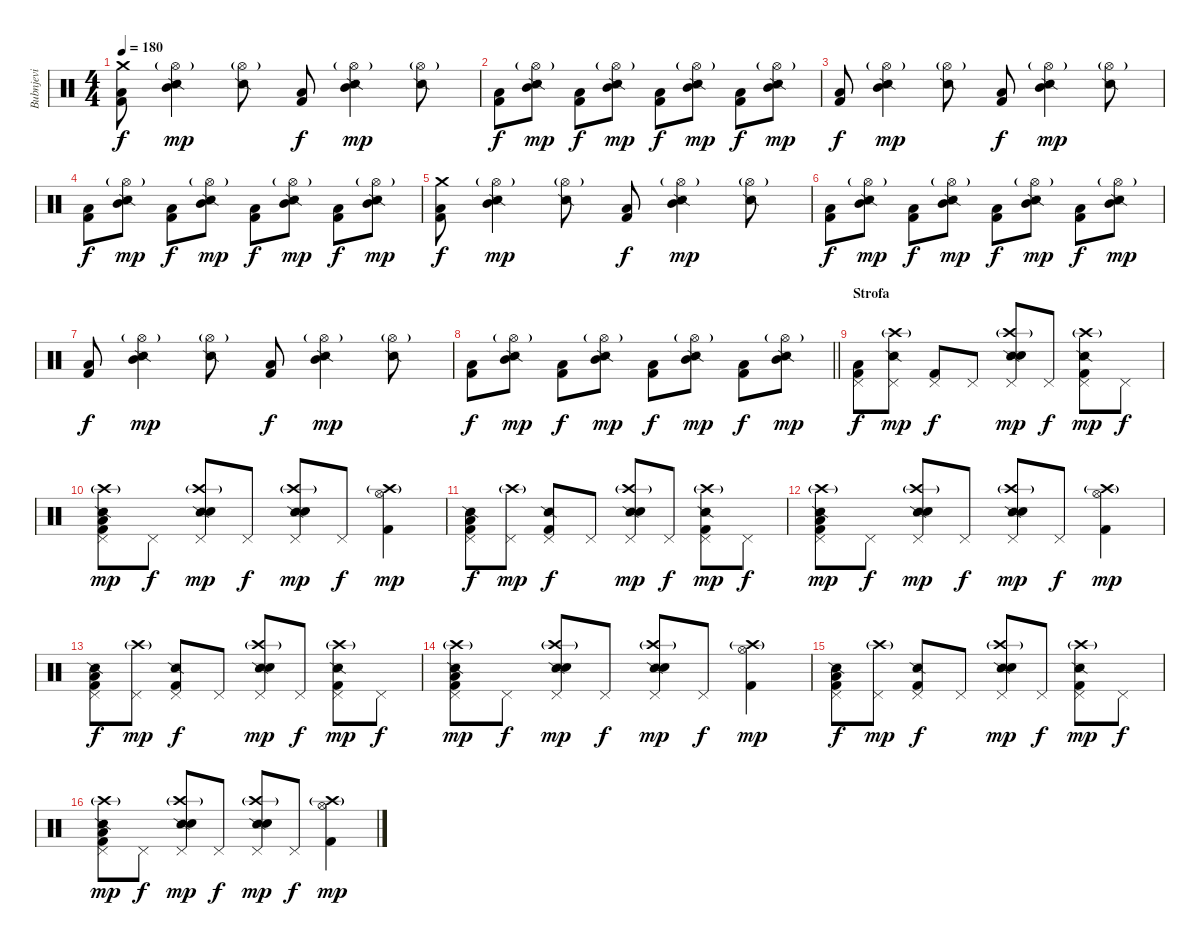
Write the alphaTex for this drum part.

\track ("Bubnjevi" "Bubnjevi") {instrument percussion}
\staff {score}
\articulation defaults
\ts (4 4)
\tempo 180
\clef neutral
\ks c
("Crash medium (hit)" "Low Tom (hit)" "Kick (hit) 2").8{dy f} ("Hi-Hat (open)"{g} "Snare (side stick) 2" "Mid Tom (hit)").4{dy mp} ("Hi-Hat (open)"{g} "Snare (side stick) 2").8 ("Low Tom (hit)" "Kick (hit) 2").8{dy f} ("Hi-Hat (open)"{g} "Snare (side stick) 2" "Mid Tom (hit)").4{dy mp} ("Hi-Hat (open)"{g} "Snare (side stick) 2").8 |
("Low Tom (hit)" "Kick (hit) 2").8{dy f} ("Hi-Hat (open)"{g} "Snare (side stick) 2" "Mid Tom (hit)").8{dy mp} ("Low Tom (hit)" "Kick (hit) 2").8{dy f} ("Hi-Hat (open)"{g} "Snare (side stick) 2" "Mid Tom (hit)").8{dy mp} ("Low Tom (hit)" "Kick (hit) 2").8{dy f} ("Hi-Hat (open)"{g} "Snare (side stick) 2" "Mid Tom (hit)").8{dy mp} ("Low Tom (hit)" "Kick (hit) 2").8{dy f} ("Hi-Hat (open)"{g} "Snare (side stick) 2" "Mid Tom (hit)").8{dy mp} |
("Low Tom (hit)" "Kick (hit) 2").8{dy f} ("Hi-Hat (open)"{g} "Snare (side stick) 2" "Mid Tom (hit)").4{dy mp} ("Hi-Hat (open)"{g} "Snare (side stick) 2").8 ("Low Tom (hit)" "Kick (hit) 2").8{dy f} ("Hi-Hat (open)"{g} "Snare (side stick) 2" "Mid Tom (hit)").4{dy mp} ("Hi-Hat (open)"{g} "Snare (side stick) 2").8 |
("Low Tom (hit)" "Kick (hit) 2").8{dy f} ("Hi-Hat (open)"{g} "Snare (side stick) 2" "Mid Tom (hit)").8{dy mp} ("Low Tom (hit)" "Kick (hit) 2").8{dy f} ("Hi-Hat (open)"{g} "Snare (side stick) 2" "Mid Tom (hit)").8{dy mp} ("Low Tom (hit)" "Kick (hit) 2").8{dy f} ("Hi-Hat (open)"{g} "Snare (side stick) 2" "Mid Tom (hit)").8{dy mp} ("Low Tom (hit)" "Kick (hit) 2").8{dy f} ("Hi-Hat (open)"{g} "Snare (side stick) 2" "Mid Tom (hit)").8{dy mp} |
("Crash medium (hit)" "Low Tom (hit)" "Kick (hit) 2").8{dy f} ("Hi-Hat (open)"{g} "Snare (side stick) 2" "Mid Tom (hit)").4{dy mp} ("Hi-Hat (open)"{g} "Snare (side stick) 2").8 ("Low Tom (hit)" "Kick (hit) 2").8{dy f} ("Hi-Hat (open)"{g} "Snare (side stick) 2" "Mid Tom (hit)").4{dy mp} ("Hi-Hat (open)"{g} "Snare (side stick) 2").8 |
("Low Tom (hit)" "Kick (hit) 2").8{dy f} ("Hi-Hat (open)"{g} "Snare (side stick) 2" "Mid Tom (hit)").8{dy mp} ("Low Tom (hit)" "Kick (hit) 2").8{dy f} ("Hi-Hat (open)"{g} "Snare (side stick) 2" "Mid Tom (hit)").8{dy mp} ("Low Tom (hit)" "Kick (hit) 2").8{dy f} ("Hi-Hat (open)"{g} "Snare (side stick) 2" "Mid Tom (hit)").8{dy mp} ("Low Tom (hit)" "Kick (hit) 2").8{dy f} ("Hi-Hat (open)"{g} "Snare (side stick) 2" "Mid Tom (hit)").8{dy mp} |
("Low Tom (hit)" "Kick (hit) 2").8{dy f} ("Hi-Hat (open)"{g} "Snare (side stick) 2" "Mid Tom (hit)").4{dy mp} ("Hi-Hat (open)"{g} "Snare (side stick) 2").8 ("Low Tom (hit)" "Kick (hit) 2").8{dy f} ("Hi-Hat (open)"{g} "Snare (side stick) 2" "Mid Tom (hit)").4{dy mp} ("Hi-Hat (open)"{g} "Snare (side stick) 2").8 |
\barLineRight lightlight
("Low Tom (hit)" "Kick (hit) 2").8{dy f} ("Hi-Hat (open)"{g} "Snare (side stick) 2" "Mid Tom (hit)").8{dy mp} ("Low Tom (hit)" "Kick (hit) 2").8{dy f} ("Hi-Hat (open)"{g} "Snare (side stick) 2" "Mid Tom (hit)").8{dy mp} ("Low Tom (hit)" "Kick (hit) 2").8{dy f} ("Hi-Hat (open)"{g} "Snare (side stick) 2" "Mid Tom (hit)").8{dy mp} ("Low Tom (hit)" "Kick (hit) 2").8{dy f} ("Hi-Hat (open)"{g} "Snare (side stick) 2" "Mid Tom (hit)").8{dy mp} |
\section ("" "Strofa")
("Pedal Hi-Hat (hit)" "Low Tom (hit)" "Kick (hit) 2").8{dy f} ("Crash high (hit)"{g} "Snare (side stick) 2" "Pedal Hi-Hat (hit)").8{dy mp} ("Pedal Hi-Hat (hit)" "Kick (hit) 2").8{dy f} "Pedal Hi-Hat (hit)".8 ("Crash high (hit)"{g} "Snare (side stick) 2" "Pedal Hi-Hat (hit)" "Electric Snare (hit)").8{dy mp} "Pedal Hi-Hat (hit)".8{dy f} ("Crash high (hit)"{g} "Snare (side stick) 2" "Pedal Hi-Hat (hit)" "Kick (hit) 2").8{dy mp} "Pedal Hi-Hat (hit)".8{dy f} |
("Crash high (hit)"{g} "Snare (side stick) 2" "Pedal Hi-Hat (hit)" "Low Tom (hit)" "Kick (hit) 2").8{dy mp} "Pedal Hi-Hat (hit)".8{dy f} ("Crash high (hit)"{g} "Snare (side stick) 2" "Pedal Hi-Hat (hit)" "Hand Clap (hit)").8{dy mp} "Pedal Hi-Hat (hit)".8{dy f} ("Crash high (hit)"{g} "Snare (side stick) 2" "Pedal Hi-Hat (hit)" "Electric Snare (hit)").8{dy mp} "Pedal Hi-Hat (hit)".8{dy f} ("Crash high (hit)"{g} "Hi-Hat (open)" "Kick (hit) 2").4{dy mp} |
("Snare (side stick) 2" "Pedal Hi-Hat (hit)" "Low Tom (hit)" "Kick (hit) 2").8{dy f} ("Crash high (hit)"{g} "Pedal Hi-Hat (hit)").8{dy mp} ("Snare (side stick) 2" "Pedal Hi-Hat (hit)" "Kick (hit) 2").8{dy f} "Pedal Hi-Hat (hit)".8 ("Crash high (hit)"{g} "Snare (side stick) 2" "Pedal Hi-Hat (hit)" "Electric Snare (hit)").8{dy mp} "Pedal Hi-Hat (hit)".8{dy f} ("Crash high (hit)"{g} "Snare (side stick) 2" "Pedal Hi-Hat (hit)" "Kick (hit) 2").8{dy mp} "Pedal Hi-Hat (hit)".8{dy f} |
("Crash high (hit)"{g} "Snare (side stick) 2" "Pedal Hi-Hat (hit)" "Low Tom (hit)" "Kick (hit) 2").8{dy mp} "Pedal Hi-Hat (hit)".8{dy f} ("Crash high (hit)"{g} "Snare (side stick) 2" "Pedal Hi-Hat (hit)" "Hand Clap (hit)").8{dy mp} "Pedal Hi-Hat (hit)".8{dy f} ("Crash high (hit)"{g} "Snare (side stick) 2" "Pedal Hi-Hat (hit)" "Electric Snare (hit)").8{dy mp} "Pedal Hi-Hat (hit)".8{dy f} ("Crash high (hit)"{g} "Hi-Hat (open)" "Kick (hit) 2").4{dy mp} |
("Snare (side stick) 2" "Pedal Hi-Hat (hit)" "Low Tom (hit)" "Kick (hit) 2").8{dy f} ("Crash high (hit)"{g} "Pedal Hi-Hat (hit)").8{dy mp} ("Snare (side stick) 2" "Pedal Hi-Hat (hit)" "Kick (hit) 2").8{dy f} "Pedal Hi-Hat (hit)".8 ("Crash high (hit)"{g} "Snare (side stick) 2" "Pedal Hi-Hat (hit)" "Electric Snare (hit)").8{dy mp} "Pedal Hi-Hat (hit)".8{dy f} ("Crash high (hit)"{g} "Snare (side stick) 2" "Pedal Hi-Hat (hit)" "Kick (hit) 2").8{dy mp} "Pedal Hi-Hat (hit)".8{dy f} |
("Crash high (hit)"{g} "Snare (side stick) 2" "Pedal Hi-Hat (hit)" "Low Tom (hit)" "Kick (hit) 2").8{dy mp} "Pedal Hi-Hat (hit)".8{dy f} ("Crash high (hit)"{g} "Snare (side stick) 2" "Pedal Hi-Hat (hit)" "Hand Clap (hit)").8{dy mp} "Pedal Hi-Hat (hit)".8{dy f} ("Crash high (hit)"{g} "Snare (side stick) 2" "Pedal Hi-Hat (hit)" "Electric Snare (hit)").8{dy mp} "Pedal Hi-Hat (hit)".8{dy f} ("Crash high (hit)"{g} "Hi-Hat (open)" "Kick (hit) 2").4{dy mp} |
("Snare (side stick) 2" "Pedal Hi-Hat (hit)" "Low Tom (hit)" "Kick (hit) 2").8{dy f} ("Crash high (hit)"{g} "Pedal Hi-Hat (hit)").8{dy mp} ("Snare (side stick) 2" "Pedal Hi-Hat (hit)" "Kick (hit) 2").8{dy f} "Pedal Hi-Hat (hit)".8 ("Crash high (hit)"{g} "Snare (side stick) 2" "Pedal Hi-Hat (hit)" "Electric Snare (hit)").8{dy mp} "Pedal Hi-Hat (hit)".8{dy f} ("Crash high (hit)"{g} "Snare (side stick) 2" "Pedal Hi-Hat (hit)" "Kick (hit) 2").8{dy mp} "Pedal Hi-Hat (hit)".8{dy f} |
("Crash high (hit)"{g} "Snare (side stick) 2" "Pedal Hi-Hat (hit)" "Low Tom (hit)" "Kick (hit) 2").8{dy mp} "Pedal Hi-Hat (hit)".8{dy f} ("Crash high (hit)"{g} "Snare (side stick) 2" "Pedal Hi-Hat (hit)" "Hand Clap (hit)").8{dy mp} "Pedal Hi-Hat (hit)".8{dy f} ("Crash high (hit)"{g} "Snare (side stick) 2" "Pedal Hi-Hat (hit)" "Electric Snare (hit)").8{dy mp} "Pedal Hi-Hat (hit)".8{dy f} ("Crash high (hit)"{g} "Hi-Hat (open)" "Kick (hit) 2").4{dy mp}
